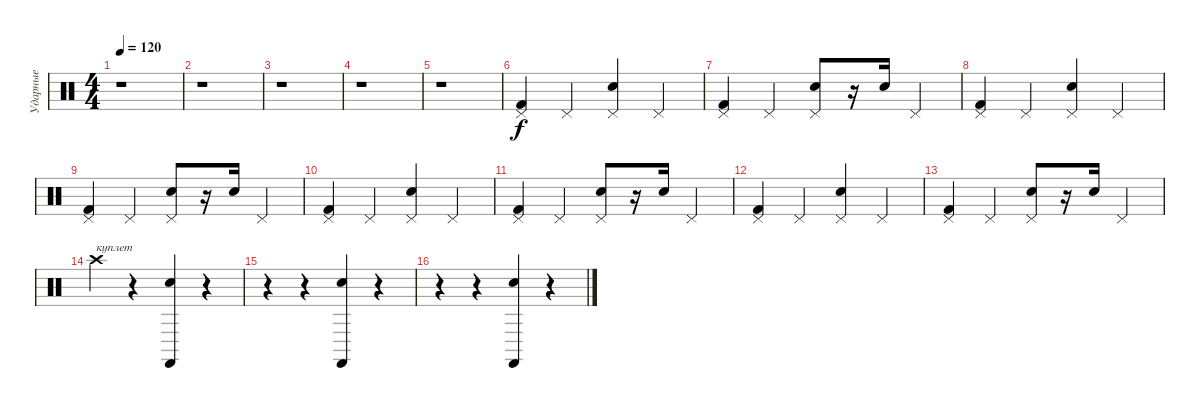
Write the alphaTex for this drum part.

\track ("Ударные" "Ударные") {instrument percussion}
\staff {score}
\articulation defaults
\ts (4 4)
\tempo 120
\clef neutral
\ks c
r.1{dy f} |
r.1 |
r.1 |
r.1 |
r.1 |
("Pedal Hi-Hat (hit)" "Kick (hit) 2").4{volume 16} "Pedal Hi-Hat (hit)".4 ("Pedal Hi-Hat (hit)" "Electric Snare (hit)").4 "Pedal Hi-Hat (hit)".4 |
("Pedal Hi-Hat (hit)" "Kick (hit) 2").4 "Pedal Hi-Hat (hit)".4 ("Pedal Hi-Hat (hit)" "Electric Snare (hit)").8 r.16 "Electric Snare (hit)".16 "Pedal Hi-Hat (hit)".4 |
("Pedal Hi-Hat (hit)" "Kick (hit) 2").4 "Pedal Hi-Hat (hit)".4 ("Pedal Hi-Hat (hit)" "Electric Snare (hit)").4 "Pedal Hi-Hat (hit)".4 |
("Pedal Hi-Hat (hit)" "Kick (hit) 2").4 "Pedal Hi-Hat (hit)".4 ("Pedal Hi-Hat (hit)" "Electric Snare (hit)").8 r.16 "Electric Snare (hit)".16 "Pedal Hi-Hat (hit)".4 |
("Pedal Hi-Hat (hit)" "Kick (hit) 2").4 "Pedal Hi-Hat (hit)".4 ("Pedal Hi-Hat (hit)" "Electric Snare (hit)").4 "Pedal Hi-Hat (hit)".4 |
("Pedal Hi-Hat (hit)" "Kick (hit) 2").4 "Pedal Hi-Hat (hit)".4 ("Pedal Hi-Hat (hit)" "Electric Snare (hit)").8 r.16 "Electric Snare (hit)".16 "Pedal Hi-Hat (hit)".4 |
("Pedal Hi-Hat (hit)" "Kick (hit) 2").4 "Pedal Hi-Hat (hit)".4 ("Pedal Hi-Hat (hit)" "Electric Snare (hit)").4 "Pedal Hi-Hat (hit)".4 |
("Pedal Hi-Hat (hit)" "Kick (hit) 2").4 "Pedal Hi-Hat (hit)".4 ("Pedal Hi-Hat (hit)" "Electric Snare (hit)").8 r.16 "Electric Snare (hit)".16 "Pedal Hi-Hat (hit)".4 |
"Crash high (hit)".4{txt "куплет"} r.4 ("Castanets (hit)" "Metronome (bell)").4 r.4 |
r.4 r.4 ("Castanets (hit)" "Metronome (bell)").4 r.4 |
r.4 r.4 ("Castanets (hit)" "Metronome (bell)").4 r.4
